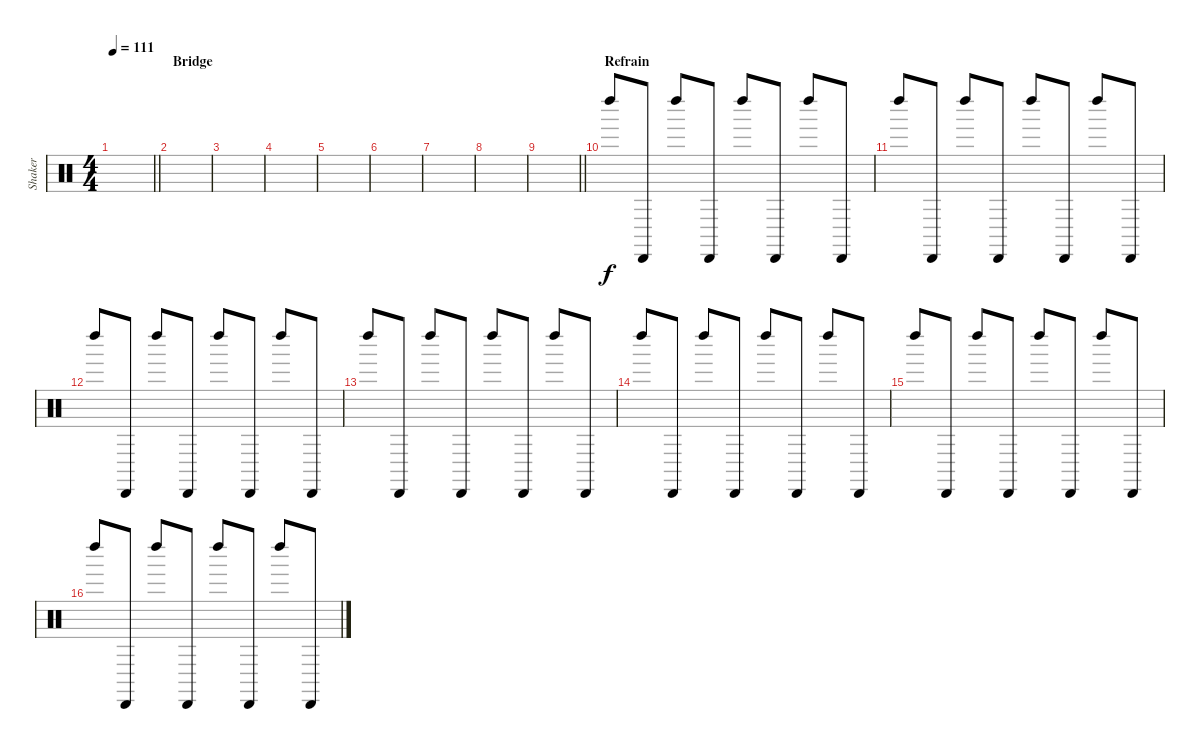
\track ("Shaker" "Shaker") {instrument percussion}
\staff {score}
\articulation defaults
\ts (4 4)
\tempo 111
\clef neutral
\barLineRight lightlight
\ks c
|
\section ("" "Bridge")
|
|
|
|
|
|
|
\barLineRight lightlight
|
\section ("" "Refrain")
"Left Maraca (hit)".8 "Cabasa (hit)".8 "Left Maraca (hit)".8 "Cabasa (hit)".8 "Left Maraca (hit)".8 "Cabasa (hit)".8 "Left Maraca (hit)".8 "Cabasa (hit)".8 |
"Left Maraca (hit)".8 "Cabasa (hit)".8 "Left Maraca (hit)".8 "Cabasa (hit)".8 "Left Maraca (hit)".8 "Cabasa (hit)".8 "Left Maraca (hit)".8 "Cabasa (hit)".8 |
"Left Maraca (hit)".8 "Cabasa (hit)".8 "Left Maraca (hit)".8 "Cabasa (hit)".8 "Left Maraca (hit)".8 "Cabasa (hit)".8 "Left Maraca (hit)".8 "Cabasa (hit)".8 |
"Left Maraca (hit)".8 "Cabasa (hit)".8 "Left Maraca (hit)".8 "Cabasa (hit)".8 "Left Maraca (hit)".8 "Cabasa (hit)".8 "Left Maraca (hit)".8 "Cabasa (hit)".8 |
"Left Maraca (hit)".8 "Cabasa (hit)".8 "Left Maraca (hit)".8 "Cabasa (hit)".8 "Left Maraca (hit)".8 "Cabasa (hit)".8 "Left Maraca (hit)".8 "Cabasa (hit)".8 |
"Left Maraca (hit)".8 "Cabasa (hit)".8 "Left Maraca (hit)".8 "Cabasa (hit)".8 "Left Maraca (hit)".8 "Cabasa (hit)".8 "Left Maraca (hit)".8 "Cabasa (hit)".8 |
"Left Maraca (hit)".8 "Cabasa (hit)".8 "Left Maraca (hit)".8 "Cabasa (hit)".8 "Left Maraca (hit)".8 "Cabasa (hit)".8 "Left Maraca (hit)".8 "Cabasa (hit)".8
